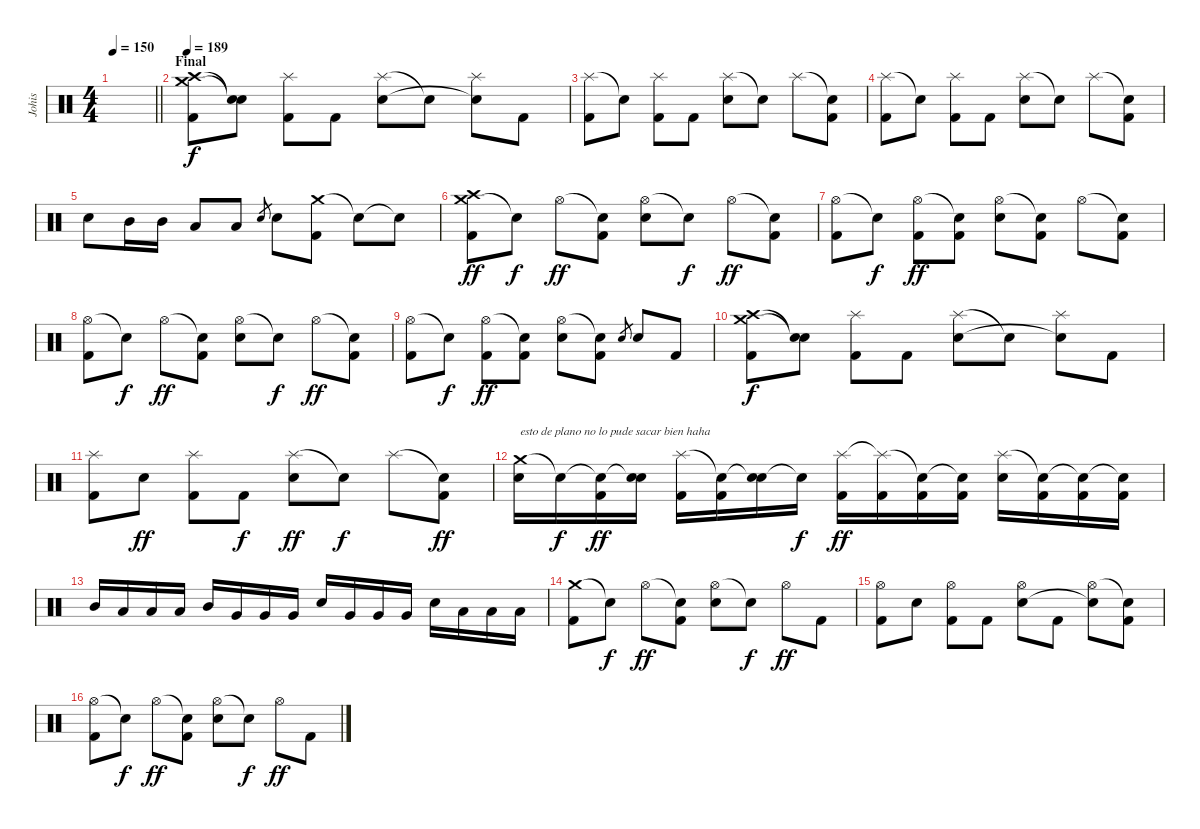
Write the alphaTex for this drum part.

\track ("Johis" "Johis") {instrument percussion}
\staff {score}
\articulation defaults
\ts (4 4)
\tempo 150
\clef neutral
\barLineRight lightlight
\ks c
|
\section ("" "Final")
\tempo 189
("Crash high (hit)" "Crash medium (hit)" "Kick (hit) 2").8 ("Snare (hit)"{t} "Snare (hit)"{t}).8 ("Splash (hit)" "Kick (hit) 2").8 "Kick (hit) 2".8 ("Splash (hit)" "Electric Snare (hit)").8 "Snare (hit)"{t}.8 ("Splash (hit)" "Snare (hit)"{t}).8 "Kick (hit) 2".8 |
("Splash (hit)" "Kick (hit) 2").8 "Snare (hit)"{t}.8 ("Splash (hit)" "Kick (hit) 2").8 "Kick (hit) 2".8 ("Splash (hit)" "Electric Snare (hit)").8 "Snare (hit)"{t}.8 "Splash (hit)".8 ("Snare (hit)"{t} "Kick (hit) 2").8 |
("Splash (hit)" "Kick (hit) 2").8 "Snare (hit)"{t}.8 ("Splash (hit)" "Kick (hit) 2").8 "Kick (hit) 2".8 ("Splash (hit)" "Electric Snare (hit)").8 "Snare (hit)"{t}.8 "Splash (hit)".8 ("Snare (hit)"{t} "Kick (hit) 2").8 |
"Electric Snare (hit)".8 "Mid Tom (hit)".16 "Mid Tom (hit)".16 "Low Tom (hit)".8 "Low Tom (hit)".8 "Electric Snare (hit)".8{gr} "Electric Snare (hit)".8 ("Crash medium (hit)" "Kick (hit) 2").8 "Snare (hit)"{t}.8 "Snare (hit)"{t}.8 |
("Crash medium (hit)" "Crash high (hit)" "Kick (hit) 2").8{dy ff} "Snare (hit)"{t}.8{dy f} "Hi-Hat (open)".8{dy ff} ("Snare (hit)"{t} "Kick (hit) 2").8 ("Hi-Hat (open)" "Electric Snare (hit)").8 "Snare (hit)"{t}.8{dy f} "Hi-Hat (open)".8{dy ff} ("Snare (hit)"{t} "Kick (hit) 2").8 |
("Hi-Hat (open)" "Kick (hit) 2").8 "Snare (hit)"{t}.8{dy f} ("Hi-Hat (open)" "Kick (hit) 2").8{dy ff} ("Snare (hit)"{t} "Kick (hit) 2").8 ("Hi-Hat (open)" "Electric Snare (hit)").8 ("Snare (hit)"{t} "Kick (hit) 2").8 "Hi-Hat (open)".8 ("Snare (hit)"{t} "Kick (hit) 2").8 |
("Hi-Hat (open)" "Kick (hit) 2").8 "Snare (hit)"{t}.8{dy f} "Hi-Hat (open)".8{dy ff} ("Snare (hit)"{t} "Kick (hit) 2").8 ("Hi-Hat (open)" "Electric Snare (hit)").8 "Snare (hit)"{t}.8{dy f} "Hi-Hat (open)".8{dy ff} ("Snare (hit)"{t} "Kick (hit) 2").8 |
("Hi-Hat (open)" "Kick (hit) 2").8 "Snare (hit)"{t}.8{dy f} ("Hi-Hat (open)" "Kick (hit) 2").8{dy ff} ("Snare (hit)"{t} "Kick (hit) 2").8 ("Hi-Hat (open)" "Electric Snare (hit)").8 ("Snare (hit)"{t} "Kick (hit) 2").8 "Electric Snare (hit)".8{gr} "Electric Snare (hit)".8 "Kick (hit) 2".8 |
("Crash high (hit)" "Crash medium (hit)" "Kick (hit) 2").8{dy f} ("Snare (hit)"{t} "Snare (hit)"{t}).8 ("Splash (hit)" "Kick (hit) 2").8 "Kick (hit) 2".8 ("Splash (hit)" "Electric Snare (hit)").8 "Snare (hit)"{t}.8 ("Splash (hit)" "Snare (hit)"{t}).8 "Kick (hit) 2".8 |
("Splash (hit)" "Kick (hit) 2").8 "Electric Snare (hit)".8{dy ff} ("Splash (hit)" "Kick (hit) 2").8 "Kick (hit) 2".8{dy f} ("Splash (hit)" "Electric Snare (hit)").8{dy ff} "Electric Snare (hit)"{t}.8{dy f} "Splash (hit)".8 ("Snare (hit)"{t} "Kick (hit) 2").8{dy ff} |
("Crash medium (hit)" "Electric Snare (hit)").16{txt "esto de plano no lo pude sacar bien haha"} "Snare (hit)"{t}.16{dy f} ("Snare (hit)"{t} "Kick (hit) 2").16{dy ff} ("Snare (hit)"{t} "Electric Snare (hit)").16 ("Splash (hit)" "Kick (hit) 2").16 ("Snare (hit)"{t} "Kick (hit) 2").16 ("Snare (hit)"{t} "Electric Snare (hit)").16 "Snare (hit)"{t}.16{dy f} ("Splash (hit)" "Kick (hit) 2").16{dy ff} ("Splash (hit)"{t} "Kick (hit) 2").16 ("Snare (hit)"{t} "Kick (hit) 2").16 ("Snare (hit)"{t} "Kick (hit) 2").16 ("Splash (hit)" "Electric Snare (hit)").16 ("Snare (hit)"{t} "Kick (hit) 2").16 ("Snare (hit)"{t} "Kick (hit) 2").16 ("Snare (hit)"{t} "Kick (hit) 2").16 |
"Mid Tom (hit)".16 "Low Tom (hit)".16 "Low Tom (hit)".16 "Low Tom (hit)".16 "Mid Tom (hit)".16 "Very Low Tom (hit)".16 "Very Low Tom (hit)".16 "Very Low Tom (hit)".16 "Electric Snare (hit)".16 "Very Low Tom (hit)".16 "Very Low Tom (hit)".16 "Very Low Tom (hit)".16 "Electric Snare (hit)".16 "Low Floor Tom (hit)".16 "Low Floor Tom (hit)".16 "Low Floor Tom (hit)".16 |
("Crash medium (hit)" "Kick (hit) 2").8 "Snare (hit)"{t}.8{dy f} "Hi-Hat (open)".8{dy ff} ("Snare (hit)"{t} "Kick (hit) 2").8 ("Hi-Hat (open)" "Electric Snare (hit)").8 "Snare (hit)"{t}.8{dy f} "Hi-Hat (open)".8{dy ff} "Kick (hit) 2".8 |
("Hi-Hat (open)" "Kick (hit) 2").8 "Electric Snare (hit)".8 ("Hi-Hat (open)" "Kick (hit) 2").8 "Kick (hit) 2".8 ("Hi-Hat (open)" "Electric Snare (hit)").8 "Kick (hit) 2".8 ("Hi-Hat (open)" "Snare (hit)"{t}).8 ("Snare (hit)"{t} "Kick (hit) 2").8 |
("Hi-Hat (open)" "Kick (hit) 2").8 "Snare (hit)"{t}.8{dy f} "Hi-Hat (open)".8{dy ff} ("Snare (hit)"{t} "Kick (hit) 2").8 ("Hi-Hat (open)" "Electric Snare (hit)").8 "Snare (hit)"{t}.8{dy f} "Hi-Hat (open)".8{dy ff} "Kick (hit) 2".8
